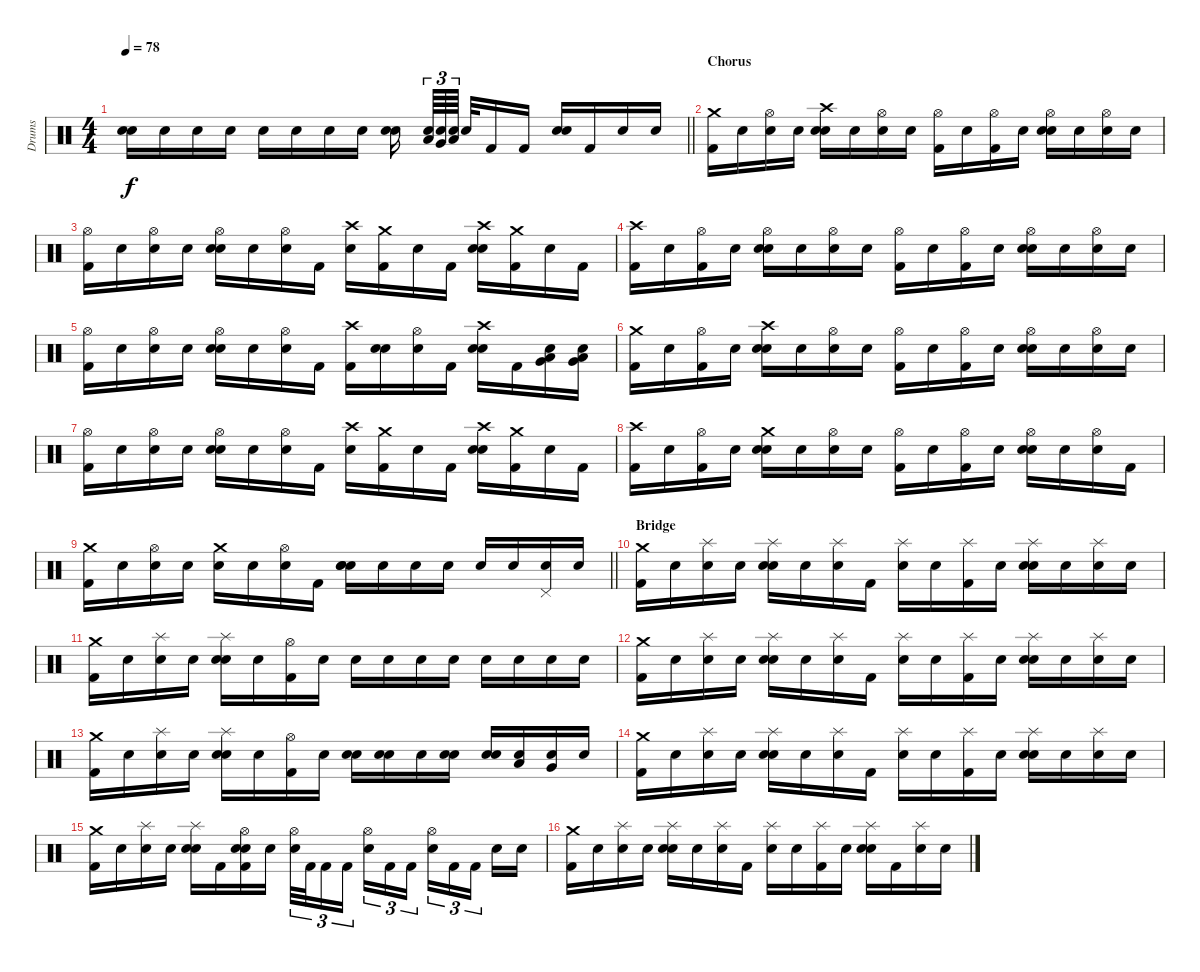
\track ("Drums" "Drums") {instrument percussion}
\staff {score}
\articulation defaults
\ts (4 4)
\tempo 78
\clef neutral
\barLineRight lightlight
\ks c
("Snare (hit) 2" "Snare (hit) 2").16{bd 30 dy f} "Snare (hit)".16 "Snare (hit)".16 "Snare (hit)".16 "Snare (hit)".16 "Snare (hit)".16 "Snare (hit)".16 "Snare (hit)".16 ("Snare (hit) 2" "Snare (hit)").16{beam splitsecondary} ("Low Tom (hit)" "Snare (hit)").64{tu (3 2)} ("Very Low Tom (hit)" "Snare (hit)").64{tu (3 2)} ("Low Floor Tom (hit)" "Snare (hit)").64{tu (3 2) beam splitsecondary} "Snare (hit)".32 "Kick (hit) 2".16 "Kick (hit) 2".16 ("Snare (hit) 2" "Snare (hit)").16 "Kick (hit) 2".16 "Snare (hit)".16 "Snare (hit)".16 |
\section ("" "Chorus")
("Crash medium (hit)" "Kick (hit) 2").16 "Snare (hit)".16 ("Hi-Hat (open)" "Snare (hit)").16 "Snare (hit)".16 ("Crash high (hit)" "Snare (hit) 2" "Snare (hit)").16 "Snare (hit)".16 ("Hi-Hat (open)" "Snare (hit)").16 "Snare (hit)".16 ("Hi-Hat (open)" "Kick (hit) 2").16 "Snare (hit)".16 ("Hi-Hat (open)" "Kick (hit) 2").16 "Snare (hit)".16 ("Hi-Hat (open)" "Snare (hit) 2" "Snare (hit)").16 "Snare (hit)".16 ("Hi-Hat (open)" "Snare (hit)").16 "Snare (hit)".16 |
("Hi-Hat (open)" "Kick (hit) 2").16 "Snare (hit)".16 ("Hi-Hat (open)" "Snare (hit)").16 "Snare (hit)".16 ("Hi-Hat (open)" "Snare (hit) 2" "Snare (hit)").16 "Snare (hit)".16 ("Hi-Hat (open)" "Snare (hit)").16 "Kick (hit) 2".16 ("Crash high (hit)" "Snare (hit) 2").16 ("Crash medium (hit)" "Kick (hit) 2").16 "Snare (hit)".16 "Kick (hit) 2".16 ("Crash high (hit)" "Snare (hit) 2" "Snare (hit)").16 ("Crash medium (hit)" "Kick (hit) 2").16 "Snare (hit)".16 "Kick (hit) 2".16 |
("Crash high (hit)" "Kick (hit) 2").16 "Snare (hit)".16 ("Hi-Hat (open)" "Kick (hit) 2").16 "Snare (hit)".16 ("Hi-Hat (open)" "Snare (hit) 2" "Snare (hit)").16 "Snare (hit)".16 ("Hi-Hat (open)" "Snare (hit)").16 "Snare (hit)".16 ("Hi-Hat (open)" "Kick (hit) 2").16 "Snare (hit)".16 ("Hi-Hat (open)" "Kick (hit) 2").16 "Snare (hit)".16 ("Hi-Hat (open)" "Snare (hit) 2" "Snare (hit)").16 "Snare (hit)".16 ("Hi-Hat (open)" "Snare (hit)").16 "Snare (hit)".16 |
("Hi-Hat (open)" "Kick (hit) 2").16 "Snare (hit)".16 ("Hi-Hat (open)" "Snare (hit)").16 "Snare (hit)".16 ("Hi-Hat (open)" "Snare (hit) 2" "Snare (hit)").16 "Snare (hit)".16 ("Hi-Hat (open)" "Snare (hit)").16 "Kick (hit) 2".16 ("Crash high (hit)" "Kick (hit) 2").16 ("Snare (hit) 2" "Snare (hit)").16 ("Hi-Hat (open)" "Snare (hit)").16 "Kick (hit) 2".16 ("Crash high (hit)" "Snare (hit) 2" "Snare (hit)").16 "Kick (hit) 2".16 ("Low Floor Tom (hit)" "Very Low Tom (hit)" "Snare (hit)").16{bu 30} ("Low Floor Tom (hit)" "Very Low Tom (hit)" "Snare (hit)").16{bu 30} |
("Crash medium (hit)" "Kick (hit) 2").16 "Snare (hit)".16 ("Hi-Hat (open)" "Kick (hit) 2").16 "Snare (hit)".16 ("Crash high (hit)" "Snare (hit) 2" "Snare (hit)").16 "Snare (hit)".16 ("Hi-Hat (open)" "Snare (hit)").16 "Snare (hit)".16 ("Hi-Hat (open)" "Kick (hit) 2").16 "Snare (hit)".16 ("Hi-Hat (open)" "Kick (hit) 2").16 "Snare (hit)".16 ("Hi-Hat (open)" "Snare (hit) 2" "Snare (hit)").16 "Snare (hit)".16 ("Hi-Hat (open)" "Snare (hit)").16 "Snare (hit)".16 |
("Hi-Hat (open)" "Kick (hit) 2").16 "Snare (hit)".16 ("Hi-Hat (open)" "Snare (hit)").16 "Snare (hit)".16 ("Hi-Hat (open)" "Snare (hit) 2" "Snare (hit)").16 "Snare (hit)".16 ("Hi-Hat (open)" "Snare (hit)").16 "Kick (hit) 2".16 ("Crash high (hit)" "Snare (hit) 2").16 ("Crash medium (hit)" "Kick (hit) 2").16 "Snare (hit)".16 "Kick (hit) 2".16 ("Crash high (hit)" "Snare (hit) 2" "Snare (hit)").16 ("Crash medium (hit)" "Kick (hit) 2").16 "Snare (hit)".16 "Kick (hit) 2".16 |
("Crash high (hit)" "Kick (hit) 2").16 "Snare (hit)".16 ("Hi-Hat (open)" "Kick (hit) 2").16 "Snare (hit)".16 ("Crash medium (hit)" "Snare (hit) 2" "Snare (hit)").16 "Snare (hit)".16 ("Hi-Hat (open)" "Snare (hit)").16 "Snare (hit)".16 ("Hi-Hat (open)" "Kick (hit) 2").16 "Snare (hit)".16 ("Hi-Hat (open)" "Kick (hit) 2").16 "Snare (hit)".16 ("Hi-Hat (open)" "Snare (hit) 2" "Snare (hit)").16 "Snare (hit)".16 ("Hi-Hat (open)" "Snare (hit)").16 "Kick (hit) 2".16 |
\barLineRight lightlight
("Crash medium (hit)" "Kick (hit) 2").16 "Snare (hit)".16 ("Hi-Hat (open)" "Snare (hit)").16 "Snare (hit)".16 ("Crash medium (hit)" "Snare (hit) 2").16 "Snare (hit)".16 ("Hi-Hat (open)" "Snare (hit)").16 "Kick (hit) 2".16 ("Snare (hit) 2" "Snare (hit) 2" "Snare (hit)").16{bu 30} "Snare (hit)".16 "Snare (hit)".16 "Snare (hit)".16 "Snare (hit)".16 "Snare (hit)".16 ("Pedal Hi-Hat (hit)" "Snare (hit)").16 "Snare (hit)".16 |
\section ("" "Bridge")
("Crash medium (hit)" "Kick (hit) 2").16 "Snare (hit)".16 ("Splash (hit)" "Snare (hit)").16 "Snare (hit)".16 ("Splash (hit)" "Snare (hit) 2" "Snare (hit)").16 "Snare (hit)".16 ("Splash (hit)" "Snare (hit)").16 "Kick (hit) 2".16 ("Splash (hit)" "Snare (hit)").16 "Snare (hit)".16 ("Splash (hit)" "Kick (hit) 2").16 "Snare (hit)".16 ("Splash (hit)" "Snare (hit) 2" "Snare (hit)").16 "Snare (hit)".16 ("Splash (hit)" "Snare (hit)").16 "Snare (hit)".16 |
("Crash medium (hit)" "Kick (hit) 2").16 "Snare (hit)".16 ("Splash (hit)" "Snare (hit)").16 "Snare (hit)".16 ("Splash (hit)" "Snare (hit) 2" "Snare (hit)").16 "Snare (hit)".16 ("Hi-Hat (open)" "Kick (hit) 2").16 "Snare (hit)".16 "Snare (hit)".16 "Snare (hit)".16 "Snare (hit)".16 "Snare (hit)".16 "Snare (hit)".16 "Snare (hit)".16 "Snare (hit)".16 "Snare (hit)".16 |
("Crash medium (hit)" "Kick (hit) 2").16 "Snare (hit)".16 ("Splash (hit)" "Snare (hit)").16 "Snare (hit)".16 ("Splash (hit)" "Snare (hit) 2" "Snare (hit)").16 "Snare (hit)".16 ("Splash (hit)" "Snare (hit)").16 "Kick (hit) 2".16 ("Splash (hit)" "Snare (hit)").16 "Snare (hit)".16 ("Splash (hit)" "Kick (hit) 2").16 "Snare (hit)".16 ("Splash (hit)" "Snare (hit) 2" "Snare (hit)").16 "Snare (hit)".16 ("Splash (hit)" "Snare (hit)").16 "Snare (hit)".16 |
("Crash medium (hit)" "Kick (hit) 2").16 "Snare (hit)".16 ("Splash (hit)" "Snare (hit)").16 "Snare (hit)".16 ("Splash (hit)" "Snare (hit) 2" "Snare (hit)").16 "Snare (hit)".16 ("Hi-Hat (open)" "Kick (hit) 2").16 "Snare (hit)".16 ("Snare (hit) 2" "Snare (hit)").16 ("Snare (hit) 2" "Snare (hit)").16 "Snare (hit)".16 ("Snare (hit) 2" "Snare (hit)").16 ("Snare (hit) 2" "Snare (hit)").16 ("Low Tom (hit)" "Snare (hit)").16 ("Very Low Tom (hit)" "Snare (hit)").16 "Snare (hit)".16 |
("Crash medium (hit)" "Kick (hit) 2").16 "Snare (hit)".16 ("Splash (hit)" "Snare (hit)").16 "Snare (hit)".16 ("Splash (hit)" "Snare (hit) 2" "Snare (hit)").16 "Snare (hit)".16 ("Splash (hit)" "Snare (hit)").16 "Kick (hit) 2".16 ("Splash (hit)" "Snare (hit)").16 "Snare (hit)".16 ("Splash (hit)" "Kick (hit) 2").16 "Snare (hit)".16 ("Splash (hit)" "Snare (hit) 2" "Snare (hit)").16 "Snare (hit)".16 ("Splash (hit)" "Snare (hit)").16 "Snare (hit)".16 |
("Crash medium (hit)" "Kick (hit) 2").16 "Snare (hit)".16 ("Splash (hit)" "Snare (hit)").16 "Snare (hit)".16 ("Splash (hit)" "Snare (hit) 2" "Snare (hit)").16 "Kick (hit) 2".16 ("Hi-Hat (open)" "Snare (hit) 2" "Snare (hit) 2" "Kick (hit) 2").16 "Snare (hit)".16 ("Hi-Hat (open)" "Snare (hit)").32{tu (3 2)} "Kick (hit) 2".32{tu (3 2)} "Kick (hit) 2".16{tu (3 2)} "Kick (hit) 2".16{tu (3 2) beam splitsecondary} ("Hi-Hat (open)" "Snare (hit)").16{tu (3 2)} "Kick (hit) 2".16{tu (3 2)} "Kick (hit) 2".16{tu (3 2)} ("Hi-Hat (open)" "Snare (hit)").16{tu (3 2)} "Kick (hit) 2".16{tu (3 2)} "Kick (hit) 2".16{tu (3 2) beam splitsecondary} "Snare (hit) 2".16 "Snare (hit)".16 |
("Crash medium (hit)" "Kick (hit) 2").16 "Snare (hit)".16 ("Splash (hit)" "Snare (hit)").16 "Snare (hit)".16 ("Splash (hit)" "Snare (hit) 2" "Snare (hit)").16 "Snare (hit)".16 ("Splash (hit)" "Snare (hit)").16 "Kick (hit) 2".16 ("Splash (hit)" "Snare (hit)").16 "Snare (hit)".16 ("Splash (hit)" "Kick (hit) 2").16 "Snare (hit)".16 ("Splash (hit)" "Snare (hit) 2" "Snare (hit)").16 "Kick (hit) 2".16 ("Splash (hit)" "Snare (hit) 2").16 "Snare (hit)".16
